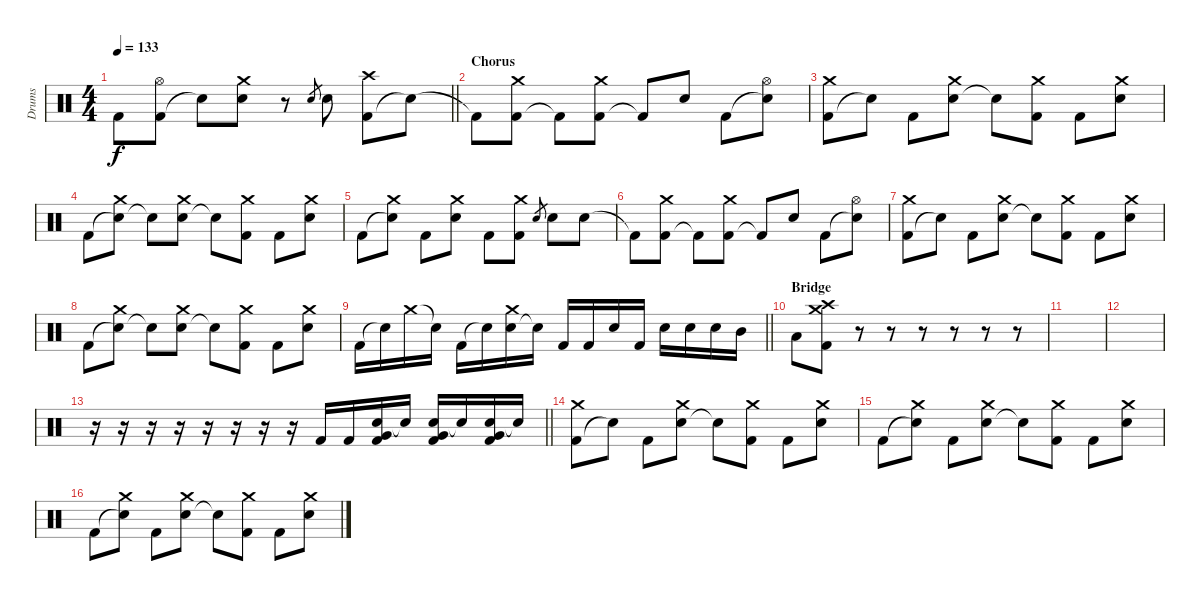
\track ("Drums" "Drums") {instrument percussion}
\staff {score}
\articulation defaults
\ts (4 4)
\tempo 133
\clef neutral
\barLineRight lightlight
\ks c "Kick (hit) 2"{t}.8{dy f}
("Kick (hit) 2" "Hi-Hat (open)").8 "Electric Snare (hit)"{t}.8 ("Electric Snare (hit)" "Crash medium (hit)").8 r.8 "Electric Snare (hit)".8{gr} "Electric Snare (hit)".8 ("Kick (hit) 2" "Crash high (hit)").8 "Snare (hit)"{t}.8 |
\section ("" "Chorus")
"Kick (hit) 2"{t}.8 ("Kick (hit) 2" "Crash medium (hit)").8 "Kick (hit) 2"{t}.8 ("Kick (hit) 2" "Crash medium (hit)").8 "Kick (hit) 2"{t}.8 "Electric Snare (hit)".8 "Kick (hit) 2".8 ("Snare (hit)"{t} "Hi-Hat (open)").8 |
("Kick (hit) 2" "Crash medium (hit)").8 "Snare (hit)"{t}.8 "Kick (hit) 2".8 ("Electric Snare (hit)" "Crash medium (hit)").8 "Snare (hit)"{t}.8 ("Kick (hit) 2" "Crash medium (hit)").8 "Kick (hit) 2".8 ("Electric Snare (hit)" "Crash medium (hit)").8 |
"Kick (hit) 2".8 ("Snare (hit)"{t} "Crash medium (hit)").8 "Snare (hit)"{t}.8 ("Electric Snare (hit)" "Crash medium (hit)").8 "Snare (hit)"{t}.8 ("Kick (hit) 2" "Crash medium (hit)").8 "Kick (hit) 2".8 ("Electric Snare (hit)" "Crash medium (hit)").8 |
"Kick (hit) 2".8 ("Snare (hit)"{t} "Crash medium (hit)").8 "Kick (hit) 2".8 ("Electric Snare (hit)" "Crash medium (hit)").8 "Kick (hit) 2".8 ("Kick (hit) 2" "Crash medium (hit)").8 "Electric Snare (hit)".8{gr} "Electric Snare (hit)".8 "Electric Snare (hit)".8 |
"Kick (hit) 2"{t}.8 ("Kick (hit) 2" "Crash medium (hit)").8 "Kick (hit) 2"{t}.8 ("Kick (hit) 2" "Crash medium (hit)").8 "Kick (hit) 2"{t}.8 "Electric Snare (hit)".8 "Kick (hit) 2".8 ("Snare (hit)"{t} "Hi-Hat (open)").8 |
("Kick (hit) 2" "Crash medium (hit)").8 "Snare (hit)"{t}.8 "Kick (hit) 2".8 ("Electric Snare (hit)" "Crash medium (hit)").8 "Snare (hit)"{t}.8 ("Kick (hit) 2" "Crash medium (hit)").8 "Kick (hit) 2".8 ("Electric Snare (hit)" "Crash medium (hit)").8 |
"Kick (hit) 2".8 ("Snare (hit)"{t} "Crash medium (hit)").8 "Snare (hit)"{t}.8 ("Electric Snare (hit)" "Crash medium (hit)").8 "Snare (hit)"{t}.8 ("Kick (hit) 2" "Crash medium (hit)").8 "Kick (hit) 2".8 ("Electric Snare (hit)" "Crash medium (hit)").8 |
\barLineRight lightlight "Kick (hit) 2".16 "Snare (hit)"{t}.16 "Crash medium (hit)".16 "Snare (hit)"{t}.16 "Kick (hit) 2".16 "Snare (hit)"{t}.16
("Electric Snare (hit)" "Crash medium (hit)").16 "Snare (hit)"{t}.16 "Kick (hit) 2".16 "Kick (hit) 2".16 "Electric Snare (hit)".16 "Kick (hit) 2".16 "Electric Snare (hit)".16 "Electric Snare (hit)".16 "Electric Snare (hit)".16 "Mid Tom (hit)".16 |
\section ("" "Bridge")
"Low Tom (hit)".8 ("Kick (hit) 2" "Crash high (hit)" "Crash medium (hit)").8 r.8 r.8 r.8 r.8 r.8 r.8 |
|
|
\barLineRight lightlight
r.16 r.16 r.16 r.16 r.16 r.16 r.16 r.16 "Kick (hit) 2".16 "Kick (hit) 2".16 ("Electric Snare (hit)" "Very Low Tom (hit)" "Kick (hit) 2").16 "Snare (hit)"{t}.16 ("Electric Snare (hit)" "Very Low Tom (hit)" "Kick (hit) 2").16 "Snare (hit)"{t}.16 ("Electric Snare (hit)" "Very Low Tom (hit)" "Kick (hit) 2").16 "Snare (hit)"{t}.16 |
("Kick (hit) 2" "Crash medium (hit)").8 "Snare (hit)"{t}.8 "Kick (hit) 2".8 ("Electric Snare (hit)" "Crash medium (hit)").8 "Snare (hit)"{t}.8 ("Kick (hit) 2" "Crash medium (hit)").8 "Kick (hit) 2".8 ("Electric Snare (hit)" "Crash medium (hit)").8 |
"Kick (hit) 2".8 ("Snare (hit)"{t} "Crash medium (hit)").8 "Kick (hit) 2".8 ("Electric Snare (hit)" "Crash medium (hit)").8 "Snare (hit)"{t}.8 ("Kick (hit) 2" "Crash medium (hit)").8 "Kick (hit) 2".8 ("Electric Snare (hit)" "Crash medium (hit)").8 |
"Kick (hit) 2".8 ("Snare (hit)"{t} "Crash medium (hit)").8 "Kick (hit) 2".8 ("Electric Snare (hit)" "Crash medium (hit)").8 "Snare (hit)"{t}.8 ("Kick (hit) 2" "Crash medium (hit)").8 "Kick (hit) 2".8 ("Electric Snare (hit)" "Crash medium (hit)").8
